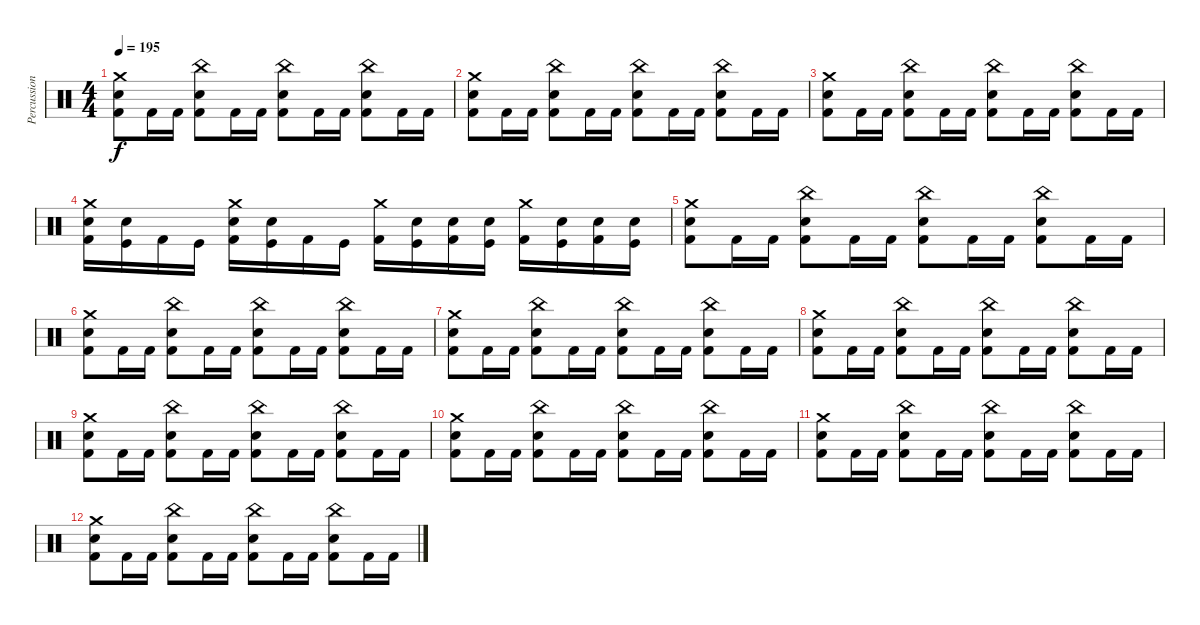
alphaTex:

\track ("Percussion" "Percussion") {instrument percussion}
\staff {score}
\articulation defaults
\ts (4 4)
\tempo 195
\clef neutral
\ks c
("Crash medium (hit)" "Electric Snare (hit)" "Kick (hit) 2").8{dy f} "Kick (hit) 2".16 "Kick (hit) 2".16 ("China (hit)" "Electric Snare (hit)" "Kick (hit) 2").8 "Kick (hit) 2".16 "Kick (hit) 2".16 ("China (hit)" "Electric Snare (hit)" "Kick (hit) 2").8 "Kick (hit) 2".16 "Kick (hit) 2".16 ("China (hit)" "Electric Snare (hit)" "Kick (hit) 2").8 "Kick (hit) 2".16 "Kick (hit) 2".16 |
("Crash medium (hit)" "Electric Snare (hit)" "Kick (hit) 2").8 "Kick (hit) 2".16 "Kick (hit) 2".16 ("China (hit)" "Electric Snare (hit)" "Kick (hit) 2").8 "Kick (hit) 2".16 "Kick (hit) 2".16 ("China (hit)" "Electric Snare (hit)" "Kick (hit) 2").8 "Kick (hit) 2".16 "Kick (hit) 2".16 ("China (hit)" "Electric Snare (hit)" "Kick (hit) 2").8 "Kick (hit) 2".16 "Kick (hit) 2".16 |
("Crash medium (hit)" "Electric Snare (hit)" "Kick (hit) 2").8 "Kick (hit) 2".16 "Kick (hit) 2".16 ("China (hit)" "Electric Snare (hit)" "Kick (hit) 2").8 "Kick (hit) 2".16 "Kick (hit) 2".16 ("China (hit)" "Electric Snare (hit)" "Kick (hit) 2").8 "Kick (hit) 2".16 "Kick (hit) 2".16 ("China (hit)" "Electric Snare (hit)" "Kick (hit) 2").8 "Kick (hit) 2".16 "Kick (hit) 2".16 |
("Crash medium (hit)" "Electric Snare (hit)" "Kick (hit) 2").16 ("Electric Snare (hit)" "Kick (hit)").16 "Kick (hit) 2".16 "Kick (hit)".16 ("Crash medium (hit)" "Electric Snare (hit)" "Kick (hit) 2").16 ("Electric Snare (hit)" "Kick (hit)").16 "Kick (hit) 2".16 "Kick (hit)".16 ("Crash medium (hit)" "Kick (hit) 2").16 ("Electric Snare (hit)" "Kick (hit)").16 ("Electric Snare (hit)" "Kick (hit) 2").16 ("Electric Snare (hit)" "Kick (hit)").16 ("Crash medium (hit)" "Kick (hit) 2").16 ("Electric Snare (hit)" "Kick (hit)").16 ("Electric Snare (hit)" "Kick (hit) 2").16 ("Electric Snare (hit)" "Kick (hit)").16 |
("Crash medium (hit)" "Electric Snare (hit)" "Kick (hit) 2").8 "Kick (hit) 2".16 "Kick (hit) 2".16 ("China (hit)" "Electric Snare (hit)" "Kick (hit) 2").8 "Kick (hit) 2".16 "Kick (hit) 2".16 ("China (hit)" "Electric Snare (hit)" "Kick (hit) 2").8 "Kick (hit) 2".16 "Kick (hit) 2".16 ("China (hit)" "Electric Snare (hit)" "Kick (hit) 2").8 "Kick (hit) 2".16 "Kick (hit) 2".16 |
("Crash medium (hit)" "Electric Snare (hit)" "Kick (hit) 2").8 "Kick (hit) 2".16 "Kick (hit) 2".16 ("China (hit)" "Electric Snare (hit)" "Kick (hit) 2").8 "Kick (hit) 2".16 "Kick (hit) 2".16 ("China (hit)" "Electric Snare (hit)" "Kick (hit) 2").8 "Kick (hit) 2".16 "Kick (hit) 2".16 ("China (hit)" "Electric Snare (hit)" "Kick (hit) 2").8 "Kick (hit) 2".16 "Kick (hit) 2".16 |
("Crash medium (hit)" "Electric Snare (hit)" "Kick (hit) 2").8 "Kick (hit) 2".16 "Kick (hit) 2".16 ("China (hit)" "Electric Snare (hit)" "Kick (hit) 2").8 "Kick (hit) 2".16 "Kick (hit) 2".16 ("China (hit)" "Electric Snare (hit)" "Kick (hit) 2").8 "Kick (hit) 2".16 "Kick (hit) 2".16 ("China (hit)" "Electric Snare (hit)" "Kick (hit) 2").8 "Kick (hit) 2".16 "Kick (hit) 2".16 |
("Crash medium (hit)" "Electric Snare (hit)" "Kick (hit) 2").8 "Kick (hit) 2".16 "Kick (hit) 2".16 ("China (hit)" "Electric Snare (hit)" "Kick (hit) 2").8 "Kick (hit) 2".16 "Kick (hit) 2".16 ("China (hit)" "Electric Snare (hit)" "Kick (hit) 2").8 "Kick (hit) 2".16 "Kick (hit) 2".16 ("China (hit)" "Electric Snare (hit)" "Kick (hit) 2").8 "Kick (hit) 2".16 "Kick (hit) 2".16 |
("Crash medium (hit)" "Electric Snare (hit)" "Kick (hit) 2").8 "Kick (hit) 2".16 "Kick (hit) 2".16 ("China (hit)" "Electric Snare (hit)" "Kick (hit) 2").8 "Kick (hit) 2".16 "Kick (hit) 2".16 ("China (hit)" "Electric Snare (hit)" "Kick (hit) 2").8 "Kick (hit) 2".16 "Kick (hit) 2".16 ("China (hit)" "Electric Snare (hit)" "Kick (hit) 2").8 "Kick (hit) 2".16 "Kick (hit) 2".16 |
("Crash medium (hit)" "Electric Snare (hit)" "Kick (hit) 2").8 "Kick (hit) 2".16 "Kick (hit) 2".16 ("China (hit)" "Electric Snare (hit)" "Kick (hit) 2").8 "Kick (hit) 2".16 "Kick (hit) 2".16 ("China (hit)" "Electric Snare (hit)" "Kick (hit) 2").8 "Kick (hit) 2".16 "Kick (hit) 2".16 ("China (hit)" "Electric Snare (hit)" "Kick (hit) 2").8 "Kick (hit) 2".16 "Kick (hit) 2".16 |
("Crash medium (hit)" "Electric Snare (hit)" "Kick (hit) 2").8 "Kick (hit) 2".16 "Kick (hit) 2".16 ("China (hit)" "Electric Snare (hit)" "Kick (hit) 2").8 "Kick (hit) 2".16 "Kick (hit) 2".16 ("China (hit)" "Electric Snare (hit)" "Kick (hit) 2").8 "Kick (hit) 2".16 "Kick (hit) 2".16 ("China (hit)" "Electric Snare (hit)" "Kick (hit) 2").8 "Kick (hit) 2".16 "Kick (hit) 2".16 |
("Crash medium (hit)" "Electric Snare (hit)" "Kick (hit) 2").8 "Kick (hit) 2".16 "Kick (hit) 2".16 ("China (hit)" "Electric Snare (hit)" "Kick (hit) 2").8 "Kick (hit) 2".16 "Kick (hit) 2".16 ("China (hit)" "Electric Snare (hit)" "Kick (hit) 2").8 "Kick (hit) 2".16 "Kick (hit) 2".16 ("China (hit)" "Electric Snare (hit)" "Kick (hit) 2").8 "Kick (hit) 2".16 "Kick (hit) 2".16
